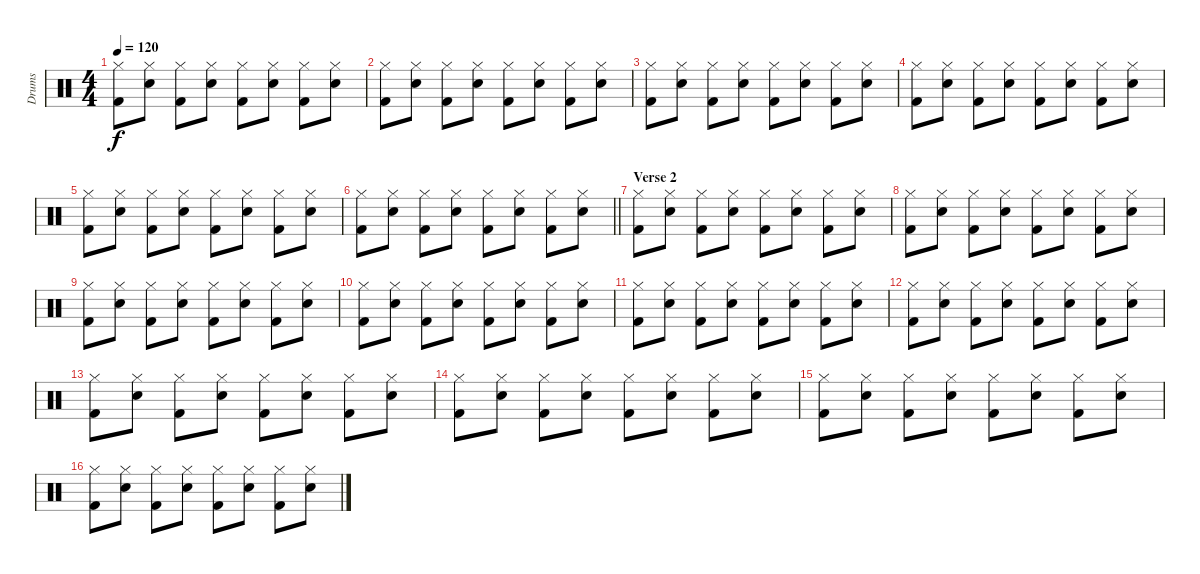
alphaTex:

\track ("Drums" "Drums") {instrument percussion}
\staff {score}
\articulation defaults
\ts (4 4)
\tempo 120
\clef neutral
\ks c
("Hi-Hat (closed)" "Kick (hit) 2").8{dy f} ("Hi-Hat (closed)" "Snare (hit) 2").8 ("Hi-Hat (closed)" "Kick (hit) 2").8 ("Hi-Hat (closed)" "Snare (hit) 2").8 ("Hi-Hat (closed)" "Kick (hit) 2").8 ("Hi-Hat (closed)" "Snare (hit) 2").8 ("Hi-Hat (closed)" "Kick (hit) 2").8 ("Hi-Hat (closed)" "Snare (hit) 2").8 |
("Hi-Hat (closed)" "Kick (hit) 2").8 ("Hi-Hat (closed)" "Snare (hit) 2").8 ("Hi-Hat (closed)" "Kick (hit) 2").8 ("Hi-Hat (closed)" "Snare (hit) 2").8 ("Hi-Hat (closed)" "Kick (hit) 2").8 ("Hi-Hat (closed)" "Snare (hit) 2").8 ("Hi-Hat (closed)" "Kick (hit) 2").8 ("Hi-Hat (closed)" "Snare (hit) 2").8 |
("Hi-Hat (closed)" "Kick (hit) 2").8 ("Hi-Hat (closed)" "Snare (hit) 2").8 ("Hi-Hat (closed)" "Kick (hit) 2").8 ("Hi-Hat (closed)" "Snare (hit) 2").8 ("Hi-Hat (closed)" "Kick (hit) 2").8 ("Hi-Hat (closed)" "Snare (hit) 2").8 ("Hi-Hat (closed)" "Kick (hit) 2").8 ("Hi-Hat (closed)" "Snare (hit) 2").8 |
("Hi-Hat (closed)" "Kick (hit) 2").8 ("Hi-Hat (closed)" "Snare (hit) 2").8 ("Hi-Hat (closed)" "Kick (hit) 2").8 ("Hi-Hat (closed)" "Snare (hit) 2").8 ("Hi-Hat (closed)" "Kick (hit) 2").8 ("Hi-Hat (closed)" "Snare (hit) 2").8 ("Hi-Hat (closed)" "Kick (hit) 2").8 ("Hi-Hat (closed)" "Snare (hit) 2").8 |
("Hi-Hat (closed)" "Kick (hit) 2").8 ("Hi-Hat (closed)" "Snare (hit) 2").8 ("Hi-Hat (closed)" "Kick (hit) 2").8 ("Hi-Hat (closed)" "Snare (hit) 2").8 ("Hi-Hat (closed)" "Kick (hit) 2").8 ("Hi-Hat (closed)" "Snare (hit) 2").8 ("Hi-Hat (closed)" "Kick (hit) 2").8 ("Hi-Hat (closed)" "Snare (hit) 2").8 |
\barLineRight lightlight
("Hi-Hat (closed)" "Kick (hit) 2").8 ("Hi-Hat (closed)" "Snare (hit) 2").8 ("Hi-Hat (closed)" "Kick (hit) 2").8 ("Hi-Hat (closed)" "Snare (hit) 2").8 ("Hi-Hat (closed)" "Kick (hit) 2").8 ("Hi-Hat (closed)" "Snare (hit) 2").8 ("Hi-Hat (closed)" "Kick (hit) 2").8 ("Hi-Hat (closed)" "Snare (hit) 2").8 |
\section ("" "Verse 2")
("Hi-Hat (closed)" "Kick (hit) 2").8 ("Hi-Hat (closed)" "Snare (hit) 2").8 ("Hi-Hat (closed)" "Kick (hit) 2").8 ("Hi-Hat (closed)" "Snare (hit) 2").8 ("Hi-Hat (closed)" "Kick (hit) 2").8 ("Hi-Hat (closed)" "Snare (hit) 2").8 ("Hi-Hat (closed)" "Kick (hit) 2").8 ("Hi-Hat (closed)" "Snare (hit) 2").8 |
("Hi-Hat (closed)" "Kick (hit) 2").8 ("Hi-Hat (closed)" "Snare (hit) 2").8 ("Hi-Hat (closed)" "Kick (hit) 2").8 ("Hi-Hat (closed)" "Snare (hit) 2").8 ("Hi-Hat (closed)" "Kick (hit) 2").8 ("Hi-Hat (closed)" "Snare (hit) 2").8 ("Hi-Hat (closed)" "Kick (hit) 2").8 ("Hi-Hat (closed)" "Snare (hit) 2").8 |
("Hi-Hat (closed)" "Kick (hit) 2").8 ("Hi-Hat (closed)" "Snare (hit) 2").8 ("Hi-Hat (closed)" "Kick (hit) 2").8 ("Hi-Hat (closed)" "Snare (hit) 2").8 ("Hi-Hat (closed)" "Kick (hit) 2").8 ("Hi-Hat (closed)" "Snare (hit) 2").8 ("Hi-Hat (closed)" "Kick (hit) 2").8 ("Hi-Hat (closed)" "Snare (hit) 2").8 |
("Hi-Hat (closed)" "Kick (hit) 2").8 ("Hi-Hat (closed)" "Snare (hit) 2").8 ("Hi-Hat (closed)" "Kick (hit) 2").8 ("Hi-Hat (closed)" "Snare (hit) 2").8 ("Hi-Hat (closed)" "Kick (hit) 2").8 ("Hi-Hat (closed)" "Snare (hit) 2").8 ("Hi-Hat (closed)" "Kick (hit) 2").8 ("Hi-Hat (closed)" "Snare (hit) 2").8 |
("Hi-Hat (closed)" "Kick (hit) 2").8 ("Hi-Hat (closed)" "Snare (hit) 2").8 ("Hi-Hat (closed)" "Kick (hit) 2").8 ("Hi-Hat (closed)" "Snare (hit) 2").8 ("Hi-Hat (closed)" "Kick (hit) 2").8 ("Hi-Hat (closed)" "Snare (hit) 2").8 ("Hi-Hat (closed)" "Kick (hit) 2").8 ("Hi-Hat (closed)" "Snare (hit) 2").8 |
("Hi-Hat (closed)" "Kick (hit) 2").8 ("Hi-Hat (closed)" "Snare (hit) 2").8 ("Hi-Hat (closed)" "Kick (hit) 2").8 ("Hi-Hat (closed)" "Snare (hit) 2").8 ("Hi-Hat (closed)" "Kick (hit) 2").8 ("Hi-Hat (closed)" "Snare (hit) 2").8 ("Hi-Hat (closed)" "Kick (hit) 2").8 ("Hi-Hat (closed)" "Snare (hit) 2").8 |
("Hi-Hat (closed)" "Kick (hit) 2").8 ("Hi-Hat (closed)" "Snare (hit) 2").8 ("Hi-Hat (closed)" "Kick (hit) 2").8 ("Hi-Hat (closed)" "Snare (hit) 2").8 ("Hi-Hat (closed)" "Kick (hit) 2").8 ("Hi-Hat (closed)" "Snare (hit) 2").8 ("Hi-Hat (closed)" "Kick (hit) 2").8 ("Hi-Hat (closed)" "Snare (hit) 2").8 |
("Hi-Hat (closed)" "Kick (hit) 2").8 ("Hi-Hat (closed)" "Snare (hit) 2").8 ("Hi-Hat (closed)" "Kick (hit) 2").8 ("Hi-Hat (closed)" "Snare (hit) 2").8 ("Hi-Hat (closed)" "Kick (hit) 2").8 ("Hi-Hat (closed)" "Snare (hit) 2").8 ("Hi-Hat (closed)" "Kick (hit) 2").8 ("Hi-Hat (closed)" "Snare (hit) 2").8 |
("Hi-Hat (closed)" "Kick (hit) 2").8 ("Hi-Hat (closed)" "Snare (hit) 2").8 ("Hi-Hat (closed)" "Kick (hit) 2").8 ("Hi-Hat (closed)" "Snare (hit) 2").8 ("Hi-Hat (closed)" "Kick (hit) 2").8 ("Hi-Hat (closed)" "Snare (hit) 2").8 ("Hi-Hat (closed)" "Kick (hit) 2").8 ("Hi-Hat (closed)" "Snare (hit) 2").8 |
("Hi-Hat (closed)" "Kick (hit) 2").8 ("Hi-Hat (closed)" "Snare (hit) 2").8 ("Hi-Hat (closed)" "Kick (hit) 2").8 ("Hi-Hat (closed)" "Snare (hit) 2").8 ("Hi-Hat (closed)" "Kick (hit) 2").8 ("Hi-Hat (closed)" "Snare (hit) 2").8 ("Hi-Hat (closed)" "Kick (hit) 2").8 ("Hi-Hat (closed)" "Snare (hit) 2").8
